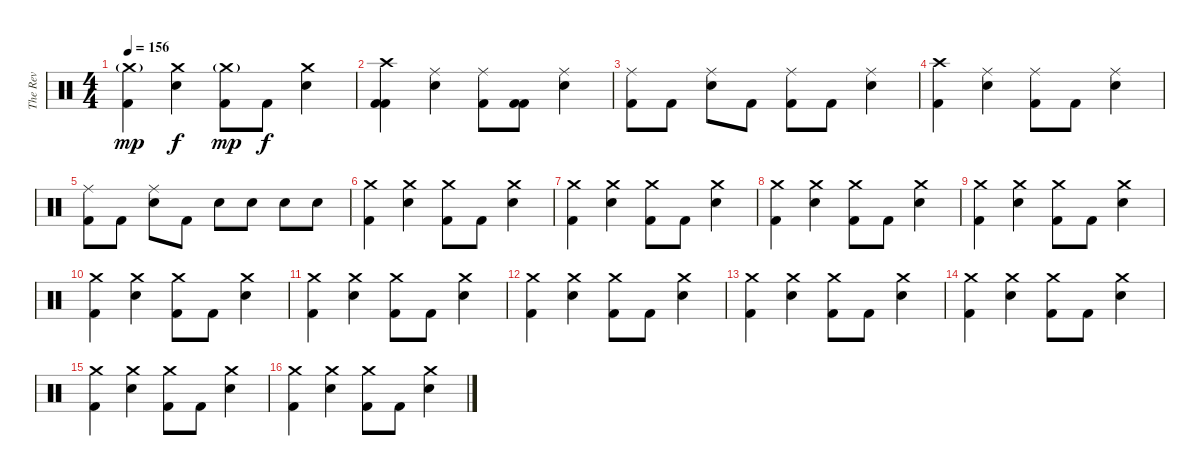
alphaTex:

\track ("The Rev" "The Rev") {instrument percussion}
\staff {score}
\articulation defaults
\ts (4 4)
\tempo 156
\clef neutral
\ks c
("Crash medium (hit)"{g} "Kick (hit) 2").4{dy mp} ("Crash medium (hit)" "Electric Snare (hit)").4{dy f} ("Crash medium (hit)"{g} "Kick (hit) 2").8{dy mp} "Kick (hit) 2".8{dy f} ("Crash medium (hit)" "Electric Snare (hit)").4 |
("Crash high (hit)" "Kick (hit) 2" "Kick (hit) 2").4{volume 12} ("Ride (middle)" "Electric Snare (hit)").4 ("Ride (middle)" "Kick (hit) 2").8 ("Kick (hit) 2" "Kick (hit) 2").8 ("Ride (middle)" "Electric Snare (hit)").4 |
("Ride (middle)" "Kick (hit) 2").8 "Kick (hit) 2".8 ("Ride (middle)" "Electric Snare (hit)").8 "Kick (hit) 2".8 ("Ride (middle)" "Kick (hit) 2").8 "Kick (hit) 2".8 ("Ride (middle)" "Electric Snare (hit)").4 |
("Crash high (hit)" "Kick (hit) 2").4 ("Ride (middle)" "Electric Snare (hit)").4 ("Ride (middle)" "Kick (hit) 2").8 "Kick (hit) 2".8 ("Ride (middle)" "Electric Snare (hit)").4 |
("Ride (middle)" "Kick (hit) 2").8 "Kick (hit) 2".8 ("Ride (middle)" "Electric Snare (hit)").8 "Kick (hit) 2".8 "Electric Snare (hit)".8 "Electric Snare (hit)".8 "Electric Snare (hit)".8 "Electric Snare (hit)".8 |
("Crash medium (hit)" "Kick (hit) 2").4 ("Crash medium (hit)" "Electric Snare (hit)").4 ("Crash medium (hit)" "Kick (hit) 2").8 "Kick (hit) 2".8 ("Crash medium (hit)" "Electric Snare (hit)").4 |
("Crash medium (hit)" "Kick (hit) 2").4 ("Crash medium (hit)" "Electric Snare (hit)").4 ("Crash medium (hit)" "Kick (hit) 2").8 "Kick (hit) 2".8 ("Crash medium (hit)" "Electric Snare (hit)").4 |
("Crash medium (hit)" "Kick (hit) 2").4 ("Crash medium (hit)" "Electric Snare (hit)").4 ("Crash medium (hit)" "Kick (hit) 2").8 "Kick (hit) 2".8 ("Crash medium (hit)" "Electric Snare (hit)").4 |
("Crash medium (hit)" "Kick (hit) 2").4 ("Crash medium (hit)" "Electric Snare (hit)").4 ("Crash medium (hit)" "Kick (hit) 2").8 "Kick (hit) 2".8 ("Crash medium (hit)" "Electric Snare (hit)").4 |
("Crash medium (hit)" "Kick (hit) 2").4 ("Crash medium (hit)" "Electric Snare (hit)").4 ("Crash medium (hit)" "Kick (hit) 2").8 "Kick (hit) 2".8 ("Crash medium (hit)" "Electric Snare (hit)").4 |
("Crash medium (hit)" "Kick (hit) 2").4 ("Crash medium (hit)" "Electric Snare (hit)").4 ("Crash medium (hit)" "Kick (hit) 2").8 "Kick (hit) 2".8 ("Crash medium (hit)" "Electric Snare (hit)").4 |
("Crash medium (hit)" "Kick (hit) 2").4 ("Crash medium (hit)" "Electric Snare (hit)").4 ("Crash medium (hit)" "Kick (hit) 2").8 "Kick (hit) 2".8 ("Crash medium (hit)" "Electric Snare (hit)").4 |
("Crash medium (hit)" "Kick (hit) 2").4 ("Crash medium (hit)" "Electric Snare (hit)").4 ("Crash medium (hit)" "Kick (hit) 2").8 "Kick (hit) 2".8 ("Crash medium (hit)" "Electric Snare (hit)").4 |
("Crash medium (hit)" "Kick (hit) 2").4 ("Crash medium (hit)" "Electric Snare (hit)").4 ("Crash medium (hit)" "Kick (hit) 2").8 "Kick (hit) 2".8 ("Crash medium (hit)" "Electric Snare (hit)").4 |
("Crash medium (hit)" "Kick (hit) 2").4 ("Crash medium (hit)" "Electric Snare (hit)").4 ("Crash medium (hit)" "Kick (hit) 2").8 "Kick (hit) 2".8 ("Crash medium (hit)" "Electric Snare (hit)").4 |
("Crash medium (hit)" "Kick (hit) 2").4 ("Crash medium (hit)" "Electric Snare (hit)").4 ("Crash medium (hit)" "Kick (hit) 2").8 "Kick (hit) 2".8 ("Crash medium (hit)" "Electric Snare (hit)").4
